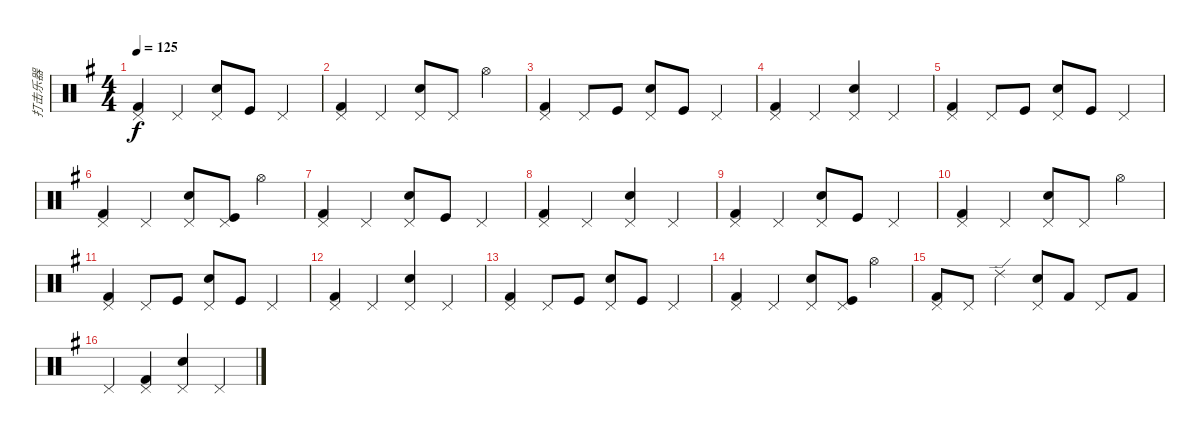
\track ("打击乐器" "打击乐器") {instrument percussion}
\staff {score}
\articulation defaults
\ts (4 4)
\tempo 125
\clef neutral
\ks g
("Pedal Hi-Hat (hit)" "Kick (hit) 2").4{dy f} "Pedal Hi-Hat (hit)".4 ("Pedal Hi-Hat (hit)" "Snare (hit) 2").8 "Kick (hit)".8 "Pedal Hi-Hat (hit)".4 |
("Pedal Hi-Hat (hit)" "Kick (hit) 2").4 "Pedal Hi-Hat (hit)".4 ("Pedal Hi-Hat (hit)" "Snare (hit) 2").8 "Pedal Hi-Hat (hit)".8 "Hi-Hat (open)".4 |
("Pedal Hi-Hat (hit)" "Kick (hit) 2").4 "Pedal Hi-Hat (hit)".8 "Kick (hit)".8 ("Pedal Hi-Hat (hit)" "Snare (hit) 2").8 "Kick (hit)".8 "Pedal Hi-Hat (hit)".4 |
("Pedal Hi-Hat (hit)" "Kick (hit) 2").4 "Pedal Hi-Hat (hit)".4 ("Pedal Hi-Hat (hit)" "Snare (hit) 2").4 "Pedal Hi-Hat (hit)".4 |
("Pedal Hi-Hat (hit)" "Kick (hit) 2").4 "Pedal Hi-Hat (hit)".8 "Kick (hit)".8 ("Pedal Hi-Hat (hit)" "Snare (hit) 2").8 "Kick (hit)".8 "Pedal Hi-Hat (hit)".4 |
("Pedal Hi-Hat (hit)" "Kick (hit) 2").4 "Pedal Hi-Hat (hit)".4 ("Pedal Hi-Hat (hit)" "Snare (hit) 2").8 ("Pedal Hi-Hat (hit)" "Kick (hit)").8 "Hi-Hat (open)".4 |
("Pedal Hi-Hat (hit)" "Kick (hit) 2").4 "Pedal Hi-Hat (hit)".4 ("Pedal Hi-Hat (hit)" "Snare (hit) 2").8 "Kick (hit)".8 "Pedal Hi-Hat (hit)".4 |
("Pedal Hi-Hat (hit)" "Kick (hit) 2").4 "Pedal Hi-Hat (hit)".4 ("Pedal Hi-Hat (hit)" "Snare (hit) 2").4 "Pedal Hi-Hat (hit)".4 |
("Pedal Hi-Hat (hit)" "Kick (hit) 2").4 "Pedal Hi-Hat (hit)".4 ("Pedal Hi-Hat (hit)" "Snare (hit) 2").8 "Kick (hit)".8 "Pedal Hi-Hat (hit)".4 |
("Pedal Hi-Hat (hit)" "Kick (hit) 2").4 "Pedal Hi-Hat (hit)".4 ("Pedal Hi-Hat (hit)" "Snare (hit) 2").8 "Pedal Hi-Hat (hit)".8 "Hi-Hat (open)".4 |
("Pedal Hi-Hat (hit)" "Kick (hit) 2").4 "Pedal Hi-Hat (hit)".8 "Kick (hit)".8 ("Pedal Hi-Hat (hit)" "Snare (hit) 2").8 "Kick (hit)".8 "Pedal Hi-Hat (hit)".4 |
("Pedal Hi-Hat (hit)" "Kick (hit) 2").4 "Pedal Hi-Hat (hit)".4 ("Pedal Hi-Hat (hit)" "Snare (hit) 2").4 "Pedal Hi-Hat (hit)".4 |
("Pedal Hi-Hat (hit)" "Kick (hit) 2").4 "Pedal Hi-Hat (hit)".8 "Kick (hit)".8 ("Pedal Hi-Hat (hit)" "Snare (hit) 2").8 "Kick (hit)".8 "Pedal Hi-Hat (hit)".4 |
("Pedal Hi-Hat (hit)" "Kick (hit) 2").4 "Pedal Hi-Hat (hit)".4 ("Pedal Hi-Hat (hit)" "Snare (hit) 2").8 ("Pedal Hi-Hat (hit)" "Kick (hit)").8 "Hi-Hat (open)".4 |
("Pedal Hi-Hat (hit)" "Kick (hit) 2").8 "Pedal Hi-Hat (hit)".8 "Ride (edge) 2".4 ("Pedal Hi-Hat (hit)" "Snare (hit) 2").8 "Kick (hit) 2".8 "Pedal Hi-Hat (hit)".8 "Kick (hit) 2".8 |
"Pedal Hi-Hat (hit)".4 ("Pedal Hi-Hat (hit)" "Kick (hit) 2").4 ("Pedal Hi-Hat (hit)" "Snare (hit) 2").4 "Pedal Hi-Hat (hit)".4
